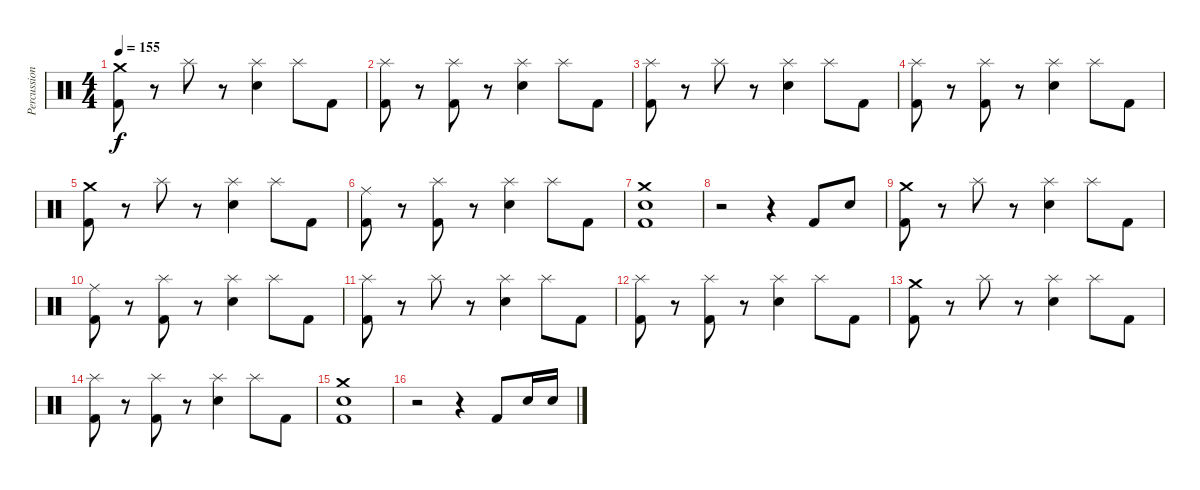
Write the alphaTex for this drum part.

\track ("Percussions" "Percussion") {instrument percussion}
\staff {score}
\articulation defaults
\ts (4 4)
\tempo 155
\clef neutral
\ks c
("Crash medium (hit)" "Kick (hit) 2").8{dy f} r.8 "Splash (hit)".8 r.8 ("Splash (hit)" "Snare (hit) 2").4 "Splash (hit)".8 "Kick (hit) 2".8 |
("Splash (hit)" "Kick (hit) 2").8 r.8 ("Splash (hit)" "Kick (hit) 2").8 r.8 ("Splash (hit)" "Snare (hit) 2").4 "Splash (hit)".8 "Kick (hit) 2".8 |
("Splash (hit)" "Kick (hit) 2").8 r.8 "Splash (hit)".8 r.8 ("Splash (hit)" "Snare (hit) 2").4 "Splash (hit)".8 "Kick (hit) 2".8 |
("Splash (hit)" "Kick (hit) 2").8 r.8 ("Splash (hit)" "Kick (hit) 2").8 r.8 ("Splash (hit)" "Snare (hit) 2").4 "Splash (hit)".8 "Kick (hit) 2".8 |
("Crash medium (hit)" "Kick (hit) 2").8 r.8 "Splash (hit)".8 r.8 ("Splash (hit)" "Snare (hit) 2").4 "Splash (hit)".8 "Kick (hit) 2".8 |
("Ride (middle)" "Kick (hit) 2").8 r.8 ("Splash (hit)" "Kick (hit) 2").8 r.8 ("Splash (hit)" "Snare (hit) 2").4 "Splash (hit)".8 "Kick (hit) 2".8 |
("Crash medium (hit)" "Snare (hit) 2" "Kick (hit) 2").1 |
r.2 r.4 "Kick (hit) 2".8 "Snare (hit) 2".8 |
("Crash medium (hit)" "Kick (hit) 2").8 r.8 "Splash (hit)".8 r.8 ("Splash (hit)" "Snare (hit) 2").4 "Splash (hit)".8 "Kick (hit) 2".8 |
("Ride (middle)" "Kick (hit) 2").8 r.8 ("Splash (hit)" "Kick (hit) 2").8 r.8 ("Splash (hit)" "Snare (hit) 2").4 "Splash (hit)".8 "Kick (hit) 2".8 |
("Splash (hit)" "Kick (hit) 2").8 r.8 "Splash (hit)".8 r.8 ("Splash (hit)" "Snare (hit) 2").4 "Splash (hit)".8 "Kick (hit) 2".8 |
("Splash (hit)" "Kick (hit) 2").8 r.8 ("Splash (hit)" "Kick (hit) 2").8 r.8 ("Splash (hit)" "Snare (hit) 2").4 "Splash (hit)".8 "Kick (hit) 2".8 |
("Crash medium (hit)" "Kick (hit) 2").8 r.8 "Splash (hit)".8 r.8 ("Splash (hit)" "Snare (hit) 2").4 "Splash (hit)".8 "Kick (hit) 2".8 |
("Splash (hit)" "Kick (hit) 2").8 r.8 ("Splash (hit)" "Kick (hit) 2").8 r.8 ("Splash (hit)" "Snare (hit) 2").4 "Splash (hit)".8 "Kick (hit) 2".8 |
("Crash medium (hit)" "Snare (hit) 2" "Kick (hit) 2").1 |
r.2 r.4 "Kick (hit) 2".8 "Snare (hit) 2".16 "Snare (hit) 2".16
